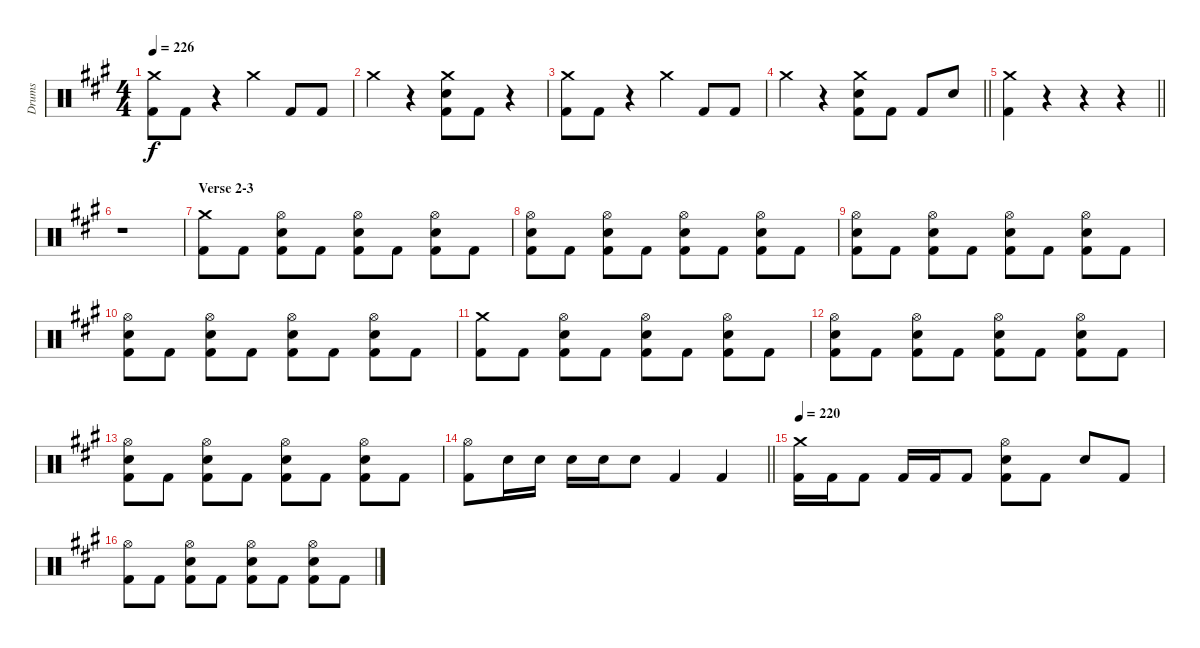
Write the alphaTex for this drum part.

\track ("Drums" "Drums") {instrument percussion}
\staff {score}
\articulation defaults
\ts (4 4)
\tempo 226
\clef neutral
\ks a
("Crash medium (hit)" "Kick (hit) 2").8{dy f} "Kick (hit) 2".8 r.4 "Crash medium (hit)".4 "Kick (hit) 2".8 "Kick (hit) 2".8 |
"Crash medium (hit)".4 r.4 ("Crash medium (hit)" "Snare (hit) 2" "Kick (hit) 2").8 "Kick (hit) 2".8 r.4 |
("Crash medium (hit)" "Kick (hit) 2").8 "Kick (hit) 2".8 r.4 "Crash medium (hit)".4 "Kick (hit) 2".8 "Kick (hit) 2".8 |
\barLineRight lightlight "Crash medium (hit)".4
r.4 ("Crash medium (hit)" "Snare (hit) 2" "Kick (hit) 2").8 "Kick (hit) 2".8 "Kick (hit) 2".8 "Snare (hit) 2".8 |
\barLineRight lightlight
("Crash medium (hit)" "Kick (hit) 2").4 r.4 r.4 r.4 |
r.1 |
\section ("" "Verse 2-3")
("Crash medium (hit)" "Kick (hit) 2").8 "Kick (hit) 2".8 ("Hi-Hat (open)" "Snare (hit) 2" "Kick (hit) 2").8 "Kick (hit) 2".8 ("Hi-Hat (open)" "Snare (hit) 2" "Kick (hit) 2").8 "Kick (hit) 2".8 ("Hi-Hat (open)" "Snare (hit) 2" "Kick (hit) 2").8 "Kick (hit) 2".8 |
("Hi-Hat (open)" "Snare (hit) 2" "Kick (hit) 2").8 "Kick (hit) 2".8 ("Hi-Hat (open)" "Snare (hit) 2" "Kick (hit) 2").8 "Kick (hit) 2".8 ("Hi-Hat (open)" "Snare (hit) 2" "Kick (hit) 2").8 "Kick (hit) 2".8 ("Hi-Hat (open)" "Snare (hit) 2" "Kick (hit) 2").8 "Kick (hit) 2".8 |
("Hi-Hat (open)" "Snare (hit) 2" "Kick (hit) 2").8 "Kick (hit) 2".8 ("Hi-Hat (open)" "Snare (hit) 2" "Kick (hit) 2").8 "Kick (hit) 2".8 ("Hi-Hat (open)" "Snare (hit) 2" "Kick (hit) 2").8 "Kick (hit) 2".8 ("Hi-Hat (open)" "Snare (hit) 2" "Kick (hit) 2").8 "Kick (hit) 2".8 |
("Hi-Hat (open)" "Snare (hit) 2" "Kick (hit) 2").8 "Kick (hit) 2".8 ("Hi-Hat (open)" "Snare (hit) 2" "Kick (hit) 2").8 "Kick (hit) 2".8 ("Hi-Hat (open)" "Snare (hit) 2" "Kick (hit) 2").8 "Kick (hit) 2".8 ("Hi-Hat (open)" "Snare (hit) 2" "Kick (hit) 2").8 "Kick (hit) 2".8 |
("Crash medium (hit)" "Kick (hit) 2").8 "Kick (hit) 2".8 ("Hi-Hat (open)" "Snare (hit) 2" "Kick (hit) 2").8 "Kick (hit) 2".8 ("Hi-Hat (open)" "Snare (hit) 2" "Kick (hit) 2").8 "Kick (hit) 2".8 ("Hi-Hat (open)" "Snare (hit) 2" "Kick (hit) 2").8 "Kick (hit) 2".8 |
("Hi-Hat (open)" "Snare (hit) 2" "Kick (hit) 2").8 "Kick (hit) 2".8 ("Hi-Hat (open)" "Snare (hit) 2" "Kick (hit) 2").8 "Kick (hit) 2".8 ("Hi-Hat (open)" "Snare (hit) 2" "Kick (hit) 2").8 "Kick (hit) 2".8 ("Hi-Hat (open)" "Snare (hit) 2" "Kick (hit) 2").8 "Kick (hit) 2".8 |
("Hi-Hat (open)" "Snare (hit) 2" "Kick (hit) 2").8 "Kick (hit) 2".8 ("Hi-Hat (open)" "Snare (hit) 2" "Kick (hit) 2").8 "Kick (hit) 2".8 ("Hi-Hat (open)" "Snare (hit) 2" "Kick (hit) 2").8 "Kick (hit) 2".8 ("Hi-Hat (open)" "Snare (hit) 2" "Kick (hit) 2").8 "Kick (hit) 2".8 |
\barLineRight lightlight
("Hi-Hat (open)" "Kick (hit) 2").8 "Snare (hit) 2".16 "Snare (hit) 2".16 "Snare (hit) 2".16 "Snare (hit) 2".16 "Snare (hit) 2".8 "Kick (hit) 2".4 "Kick (hit) 2".4 |
\tempo 220
("Crash medium (hit)" "Kick (hit) 2").16 "Kick (hit) 2".16 "Kick (hit) 2".8 "Kick (hit) 2".16 "Kick (hit) 2".16 "Kick (hit) 2".8 ("Hi-Hat (open)" "Snare (hit) 2" "Kick (hit) 2").8 "Kick (hit) 2".8 "Snare (hit) 2".8 "Kick (hit) 2".8 |
("Hi-Hat (open)" "Kick (hit) 2").8 "Kick (hit) 2".8 ("Hi-Hat (open)" "Snare (hit) 2" "Kick (hit) 2").8 "Kick (hit) 2".8 ("Hi-Hat (open)" "Snare (hit) 2" "Kick (hit) 2").8 "Kick (hit) 2".8 ("Hi-Hat (open)" "Snare (hit) 2" "Kick (hit) 2").8 "Kick (hit) 2".8
